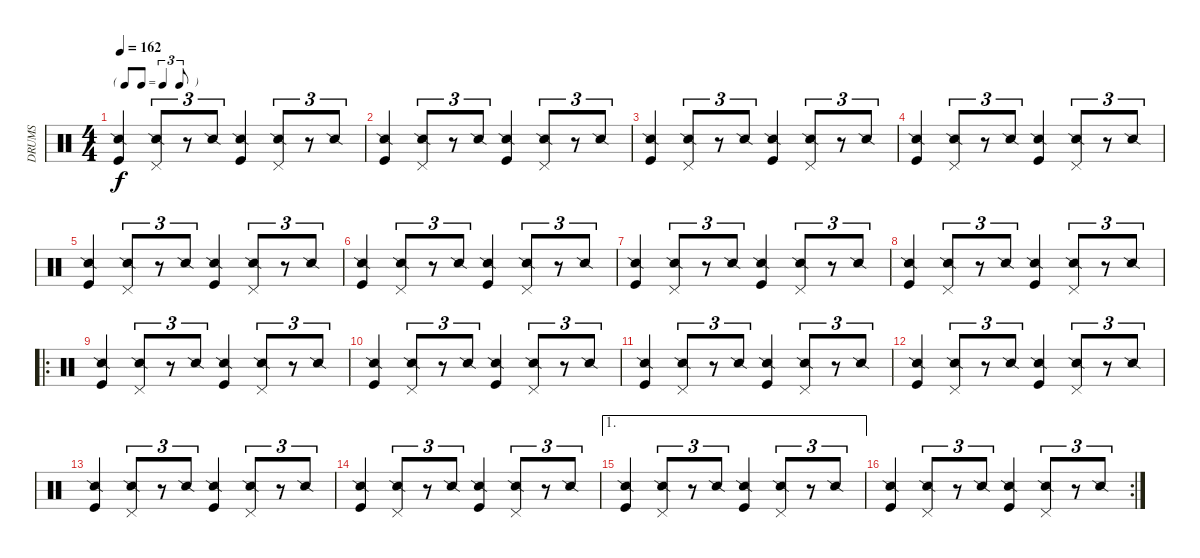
\track ("DRUMS" "DRUMS") {instrument percussion}
\staff {score}
\articulation defaults
\ts (4 4)
\tf triplet8th
\tempo 162
\clef neutral
\ks c
("Snare (side stick) 2" "Kick (hit)").4{dy f} ("Snare (side stick) 2" "Pedal Hi-Hat (hit)").8{tu (3 2)} r.8{tu (3 2)} "Snare (side stick) 2".8{tu (3 2)} ("Snare (side stick) 2" "Kick (hit)").4 ("Snare (side stick) 2" "Pedal Hi-Hat (hit)").8{tu (3 2)} r.8{tu (3 2)} "Snare (side stick) 2".8{tu (3 2)} |
("Snare (side stick) 2" "Kick (hit)").4 ("Snare (side stick) 2" "Pedal Hi-Hat (hit)").8{tu (3 2)} r.8{tu (3 2)} "Snare (side stick) 2".8{tu (3 2)} ("Snare (side stick) 2" "Kick (hit)").4 ("Snare (side stick) 2" "Pedal Hi-Hat (hit)").8{tu (3 2)} r.8{tu (3 2)} "Snare (side stick) 2".8{tu (3 2)} |
("Snare (side stick) 2" "Kick (hit)").4 ("Snare (side stick) 2" "Pedal Hi-Hat (hit)").8{tu (3 2)} r.8{tu (3 2)} "Snare (side stick) 2".8{tu (3 2)} ("Snare (side stick) 2" "Kick (hit)").4 ("Snare (side stick) 2" "Pedal Hi-Hat (hit)").8{tu (3 2)} r.8{tu (3 2)} "Snare (side stick) 2".8{tu (3 2)} |
("Snare (side stick) 2" "Kick (hit)").4 ("Snare (side stick) 2" "Pedal Hi-Hat (hit)").8{tu (3 2)} r.8{tu (3 2)} "Snare (side stick) 2".8{tu (3 2)} ("Snare (side stick) 2" "Kick (hit)").4 ("Snare (side stick) 2" "Pedal Hi-Hat (hit)").8{tu (3 2)} r.8{tu (3 2)} "Snare (side stick) 2".8{tu (3 2)} |
("Snare (side stick) 2" "Kick (hit)").4 ("Snare (side stick) 2" "Pedal Hi-Hat (hit)").8{tu (3 2)} r.8{tu (3 2)} "Snare (side stick) 2".8{tu (3 2)} ("Snare (side stick) 2" "Kick (hit)").4 ("Snare (side stick) 2" "Pedal Hi-Hat (hit)").8{tu (3 2)} r.8{tu (3 2)} "Snare (side stick) 2".8{tu (3 2)} |
("Snare (side stick) 2" "Kick (hit)").4 ("Snare (side stick) 2" "Pedal Hi-Hat (hit)").8{tu (3 2)} r.8{tu (3 2)} "Snare (side stick) 2".8{tu (3 2)} ("Snare (side stick) 2" "Kick (hit)").4 ("Snare (side stick) 2" "Pedal Hi-Hat (hit)").8{tu (3 2)} r.8{tu (3 2)} "Snare (side stick) 2".8{tu (3 2)} |
("Snare (side stick) 2" "Kick (hit)").4 ("Snare (side stick) 2" "Pedal Hi-Hat (hit)").8{tu (3 2)} r.8{tu (3 2)} "Snare (side stick) 2".8{tu (3 2)} ("Snare (side stick) 2" "Kick (hit)").4 ("Snare (side stick) 2" "Pedal Hi-Hat (hit)").8{tu (3 2)} r.8{tu (3 2)} "Snare (side stick) 2".8{tu (3 2)} |
("Snare (side stick) 2" "Kick (hit)").4 ("Snare (side stick) 2" "Pedal Hi-Hat (hit)").8{tu (3 2)} r.8{tu (3 2)} "Snare (side stick) 2".8{tu (3 2)} ("Snare (side stick) 2" "Kick (hit)").4 ("Snare (side stick) 2" "Pedal Hi-Hat (hit)").8{tu (3 2)} r.8{tu (3 2)} "Snare (side stick) 2".8{tu (3 2)} |
\ro
("Snare (side stick) 2" "Kick (hit)").4 ("Snare (side stick) 2" "Pedal Hi-Hat (hit)").8{tu (3 2)} r.8{tu (3 2)} "Snare (side stick) 2".8{tu (3 2)} ("Snare (side stick) 2" "Kick (hit)").4 ("Snare (side stick) 2" "Pedal Hi-Hat (hit)").8{tu (3 2)} r.8{tu (3 2)} "Snare (side stick) 2".8{tu (3 2)} |
("Snare (side stick) 2" "Kick (hit)").4 ("Snare (side stick) 2" "Pedal Hi-Hat (hit)").8{tu (3 2)} r.8{tu (3 2)} "Snare (side stick) 2".8{tu (3 2)} ("Snare (side stick) 2" "Kick (hit)").4 ("Snare (side stick) 2" "Pedal Hi-Hat (hit)").8{tu (3 2)} r.8{tu (3 2)} "Snare (side stick) 2".8{tu (3 2)} |
("Snare (side stick) 2" "Kick (hit)").4 ("Snare (side stick) 2" "Pedal Hi-Hat (hit)").8{tu (3 2)} r.8{tu (3 2)} "Snare (side stick) 2".8{tu (3 2)} ("Snare (side stick) 2" "Kick (hit)").4 ("Snare (side stick) 2" "Pedal Hi-Hat (hit)").8{tu (3 2)} r.8{tu (3 2)} "Snare (side stick) 2".8{tu (3 2)} |
("Snare (side stick) 2" "Kick (hit)").4 ("Snare (side stick) 2" "Pedal Hi-Hat (hit)").8{tu (3 2)} r.8{tu (3 2)} "Snare (side stick) 2".8{tu (3 2)} ("Snare (side stick) 2" "Kick (hit)").4 ("Snare (side stick) 2" "Pedal Hi-Hat (hit)").8{tu (3 2)} r.8{tu (3 2)} "Snare (side stick) 2".8{tu (3 2)} |
("Snare (side stick) 2" "Kick (hit)").4 ("Snare (side stick) 2" "Pedal Hi-Hat (hit)").8{tu (3 2)} r.8{tu (3 2)} "Snare (side stick) 2".8{tu (3 2)} ("Snare (side stick) 2" "Kick (hit)").4 ("Snare (side stick) 2" "Pedal Hi-Hat (hit)").8{tu (3 2)} r.8{tu (3 2)} "Snare (side stick) 2".8{tu (3 2)} |
("Snare (side stick) 2" "Kick (hit)").4 ("Snare (side stick) 2" "Pedal Hi-Hat (hit)").8{tu (3 2)} r.8{tu (3 2)} "Snare (side stick) 2".8{tu (3 2)} ("Snare (side stick) 2" "Kick (hit)").4 ("Snare (side stick) 2" "Pedal Hi-Hat (hit)").8{tu (3 2)} r.8{tu (3 2)} "Snare (side stick) 2".8{tu (3 2)} |
\ae 1
("Snare (side stick) 2" "Kick (hit)").4 ("Snare (side stick) 2" "Pedal Hi-Hat (hit)").8{tu (3 2)} r.8{tu (3 2)} "Snare (side stick) 2".8{tu (3 2)} ("Snare (side stick) 2" "Kick (hit)").4 ("Snare (side stick) 2" "Pedal Hi-Hat (hit)").8{tu (3 2)} r.8{tu (3 2)} "Snare (side stick) 2".8{tu (3 2)} |
\rc 2
("Snare (side stick) 2" "Kick (hit)").4 ("Snare (side stick) 2" "Pedal Hi-Hat (hit)").8{tu (3 2)} r.8{tu (3 2)} "Snare (side stick) 2".8{tu (3 2)} ("Snare (side stick) 2" "Kick (hit)").4 ("Snare (side stick) 2" "Pedal Hi-Hat (hit)").8{tu (3 2)} r.8{tu (3 2)} "Snare (side stick) 2".8{tu (3 2)}
